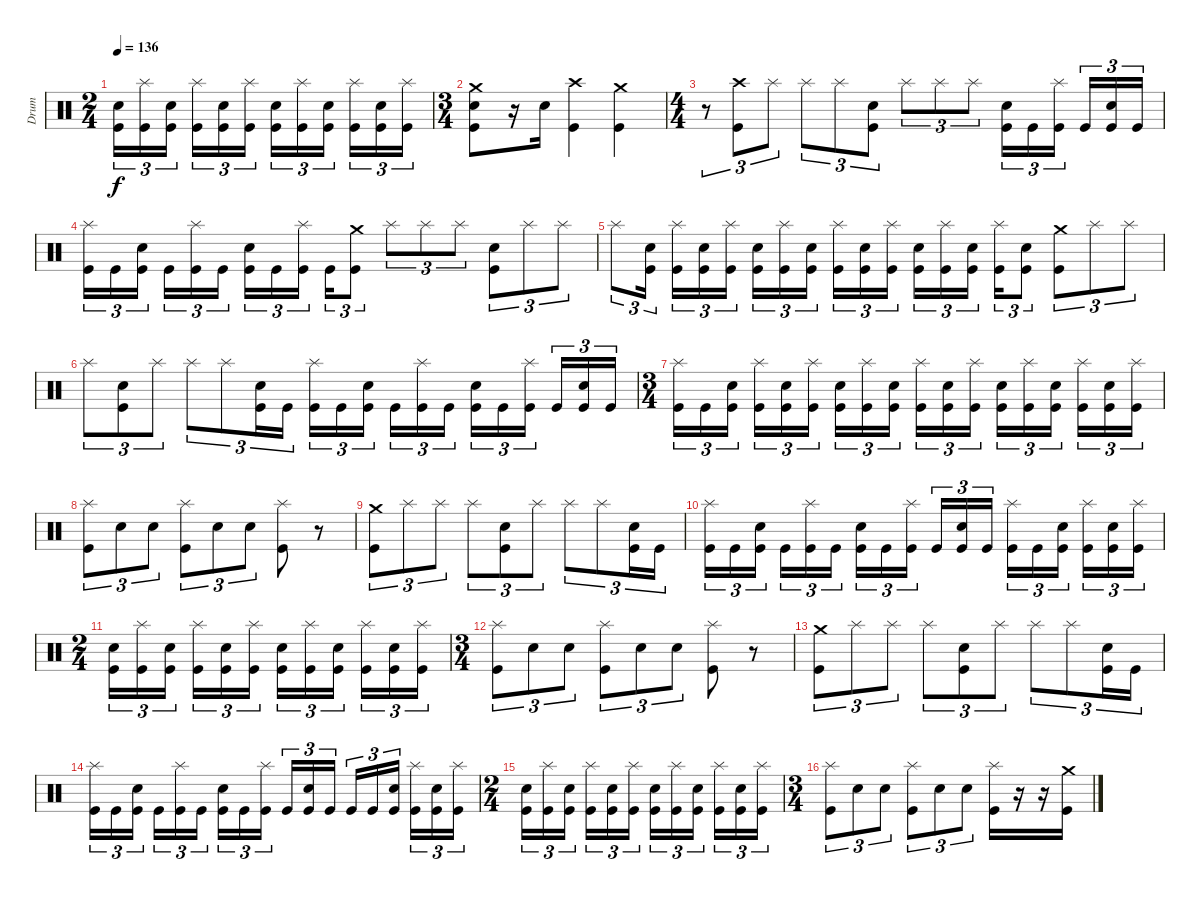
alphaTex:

\track ("Drum" "Drum") {instrument percussion}
\staff
\articulation defaults
\ts (2 4)
\tempo 136
\clef neutral
\ks c
("Electric Snare (hit)" "Kick (hit)").16{tu (3 2) dy f} ("Splash (hit)" "Kick (hit)").16{tu (3 2)} ("Electric Snare (hit)" "Kick (hit)").16{tu (3 2) beam splitsecondary} ("Splash (hit)" "Kick (hit)").16{tu (3 2)} ("Electric Snare (hit)" "Kick (hit)").16{tu (3 2)} ("Splash (hit)" "Kick (hit)").16{tu (3 2)} ("Electric Snare (hit)" "Kick (hit)").16{tu (3 2)} ("Splash (hit)" "Kick (hit)").16{tu (3 2)} ("Electric Snare (hit)" "Kick (hit)").16{tu (3 2) beam splitsecondary} ("Splash (hit)" "Kick (hit)").16{tu (3 2)} ("Electric Snare (hit)" "Kick (hit)").16{tu (3 2)} ("Splash (hit)" "Kick (hit)").16{tu (3 2)} |
\ts (3 4)
("Crash medium (hit)" "Electric Snare (hit)" "Kick (hit)").8 r.16 "Electric Snare (hit)".16 ("Crash high (hit)" "Kick (hit)").4 ("Crash medium (hit)" "Kick (hit)").4 |
\ts (4 4)
r.8{tu (3 2)} ("Crash high (hit)" "Kick (hit)").8{tu (3 2)} "Splash (hit)".8{tu (3 2)} "Splash (hit)".8{tu (3 2)} "Splash (hit)".8{tu (3 2)} ("Electric Snare (hit)" "Kick (hit)").8{tu (3 2)} "Splash (hit)".8{tu (3 2)} "Splash (hit)".8{tu (3 2)} "Splash (hit)".8{tu (3 2)} ("Electric Snare (hit)" "Kick (hit)").16{tu (3 2)} "Kick (hit)".16{tu (3 2)} ("Splash (hit)" "Kick (hit)").16{tu (3 2) beam splitsecondary} "Kick (hit)".16{tu (3 2)} ("Electric Snare (hit)" "Kick (hit)").16{tu (3 2)} "Kick (hit)".16{tu (3 2)} |
("Splash (hit)" "Kick (hit)").16{tu (3 2)} "Kick (hit)".16{tu (3 2)} ("Electric Snare (hit)" "Kick (hit)").16{tu (3 2) beam splitsecondary} "Kick (hit)".16{tu (3 2)} ("Splash (hit)" "Kick (hit)").16{tu (3 2)} "Kick (hit)".16{tu (3 2)} ("Electric Snare (hit)" "Kick (hit)").16{tu (3 2)} "Kick (hit)".16{tu (3 2)} ("Splash (hit)" "Kick (hit)").16{tu (3 2) beam splitsecondary} "Kick (hit)".16{tu (3 2)} ("Crash medium (hit)" "Kick (hit)").8{tu (3 2)} "Splash (hit)".8{tu (3 2)} "Splash (hit)".8{tu (3 2)} "Splash (hit)".8{tu (3 2)} ("Electric Snare (hit)" "Kick (hit)").8{tu (3 2)} "Splash (hit)".8{tu (3 2)} "Splash (hit)".8{tu (3 2)} |
"Splash (hit)".8{tu (3 2)} ("Electric Snare (hit)" "Kick (hit)").16{tu (3 2) beam splitsecondary} ("Splash (hit)" "Kick (hit)").16{tu (3 2)} ("Electric Snare (hit)" "Kick (hit)").16{tu (3 2)} ("Splash (hit)" "Kick (hit)").16{tu (3 2)} ("Electric Snare (hit)" "Kick (hit)").16{tu (3 2)} ("Splash (hit)" "Kick (hit)").16{tu (3 2)} ("Electric Snare (hit)" "Kick (hit)").16{tu (3 2) beam splitsecondary} ("Splash (hit)" "Kick (hit)").16{tu (3 2)} ("Electric Snare (hit)" "Kick (hit)").16{tu (3 2)} ("Splash (hit)" "Kick (hit)").16{tu (3 2)} ("Electric Snare (hit)" "Kick (hit)").16{tu (3 2)} ("Splash (hit)" "Kick (hit)").16{tu (3 2)} ("Electric Snare (hit)" "Kick (hit)").16{tu (3 2) beam splitsecondary} ("Splash (hit)" "Kick (hit)").16{tu (3 2)} ("Electric Snare (hit)" "Kick (hit)").8{tu (3 2)} ("Crash medium (hit)" "Kick (hit)").8{tu (3 2)} "Splash (hit)".8{tu (3 2)} "Splash (hit)".8{tu (3 2)} |
"Splash (hit)".8{tu (3 2)} ("Electric Snare (hit)" "Kick (hit)").8{tu (3 2)} "Splash (hit)".8{tu (3 2)} "Splash (hit)".8{tu (3 2)} "Splash (hit)".8{tu (3 2)} ("Electric Snare (hit)" "Kick (hit)").16{tu (3 2)} "Kick (hit)".16{tu (3 2)} ("Splash (hit)" "Kick (hit)").16{tu (3 2)} "Kick (hit)".16{tu (3 2)} ("Electric Snare (hit)" "Kick (hit)").16{tu (3 2) beam splitsecondary} "Kick (hit)".16{tu (3 2)} ("Splash (hit)" "Kick (hit)").16{tu (3 2)} "Kick (hit)".16{tu (3 2)} ("Electric Snare (hit)" "Kick (hit)").16{tu (3 2)} "Kick (hit)".16{tu (3 2)} ("Splash (hit)" "Kick (hit)").16{tu (3 2) beam splitsecondary} "Kick (hit)".16{tu (3 2)} ("Electric Snare (hit)" "Kick (hit)").16{tu (3 2)} "Kick (hit)".16{tu (3 2)} |
\ts (3 4)
("Splash (hit)" "Kick (hit)").16{tu (3 2)} "Kick (hit)".16{tu (3 2)} ("Electric Snare (hit)" "Kick (hit)").16{tu (3 2) beam splitsecondary} ("Splash (hit)" "Kick (hit)").16{tu (3 2)} ("Electric Snare (hit)" "Kick (hit)").16{tu (3 2)} ("Splash (hit)" "Kick (hit)").16{tu (3 2)} ("Electric Snare (hit)" "Kick (hit)").16{tu (3 2)} ("Splash (hit)" "Kick (hit)").16{tu (3 2)} ("Electric Snare (hit)" "Kick (hit)").16{tu (3 2) beam splitsecondary} ("Splash (hit)" "Kick (hit)").16{tu (3 2)} ("Electric Snare (hit)" "Kick (hit)").16{tu (3 2)} ("Splash (hit)" "Kick (hit)").16{tu (3 2)} ("Electric Snare (hit)" "Kick (hit)").16{tu (3 2)} ("Splash (hit)" "Kick (hit)").16{tu (3 2)} ("Electric Snare (hit)" "Kick (hit)").16{tu (3 2) beam splitsecondary} ("Splash (hit)" "Kick (hit)").16{tu (3 2)} ("Electric Snare (hit)" "Kick (hit)").16{tu (3 2)} ("Splash (hit)" "Kick (hit)").16{tu (3 2)} |
("Splash (hit)" "Kick (hit)").8{tu (3 2)} "Electric Snare (hit)".8{tu (3 2)} "Electric Snare (hit)".8{tu (3 2)} ("Splash (hit)" "Kick (hit)").8{tu (3 2)} "Electric Snare (hit)".8{tu (3 2)} "Electric Snare (hit)".8{tu (3 2)} ("Splash (hit)" "Kick (hit)").8 r.8 |
("Crash medium (hit)" "Kick (hit)").8{tu (3 2)} "Splash (hit)".8{tu (3 2)} "Splash (hit)".8{tu (3 2)} "Splash (hit)".8{tu (3 2)} ("Electric Snare (hit)" "Kick (hit)").8{tu (3 2)} "Splash (hit)".8{tu (3 2)} "Splash (hit)".8{tu (3 2)} "Splash (hit)".8{tu (3 2)} ("Electric Snare (hit)" "Kick (hit)").16{tu (3 2)} "Kick (hit)".16{tu (3 2)} |
("Splash (hit)" "Kick (hit)").16{tu (3 2)} "Kick (hit)".16{tu (3 2)} ("Electric Snare (hit)" "Kick (hit)").16{tu (3 2) beam splitsecondary} "Kick (hit)".16{tu (3 2)} ("Splash (hit)" "Kick (hit)").16{tu (3 2)} "Kick (hit)".16{tu (3 2)} ("Electric Snare (hit)" "Kick (hit)").16{tu (3 2)} "Kick (hit)".16{tu (3 2)} ("Splash (hit)" "Kick (hit)").16{tu (3 2) beam splitsecondary} "Kick (hit)".16{tu (3 2)} ("Electric Snare (hit)" "Kick (hit)").16{tu (3 2)} "Kick (hit)".16{tu (3 2)} ("Splash (hit)" "Kick (hit)").16{tu (3 2)} "Kick (hit)".16{tu (3 2)} ("Electric Snare (hit)" "Kick (hit)").16{tu (3 2) beam splitsecondary} ("Splash (hit)" "Kick (hit)").16{tu (3 2)} ("Electric Snare (hit)" "Kick (hit)").16{tu (3 2)} ("Splash (hit)" "Kick (hit)").16{tu (3 2)} |
\ts (2 4)
("Electric Snare (hit)" "Kick (hit)").16{tu (3 2)} ("Splash (hit)" "Kick (hit)").16{tu (3 2)} ("Electric Snare (hit)" "Kick (hit)").16{tu (3 2) beam splitsecondary} ("Splash (hit)" "Kick (hit)").16{tu (3 2)} ("Electric Snare (hit)" "Kick (hit)").16{tu (3 2)} ("Splash (hit)" "Kick (hit)").16{tu (3 2)} ("Electric Snare (hit)" "Kick (hit)").16{tu (3 2)} ("Splash (hit)" "Kick (hit)").16{tu (3 2)} ("Electric Snare (hit)" "Kick (hit)").16{tu (3 2) beam splitsecondary} ("Splash (hit)" "Kick (hit)").16{tu (3 2)} ("Electric Snare (hit)" "Kick (hit)").16{tu (3 2)} ("Splash (hit)" "Kick (hit)").16{tu (3 2)} |
\ts (3 4)
("Splash (hit)" "Kick (hit)").8{tu (3 2)} "Electric Snare (hit)".8{tu (3 2)} "Electric Snare (hit)".8{tu (3 2)} ("Splash (hit)" "Kick (hit)").8{tu (3 2)} "Electric Snare (hit)".8{tu (3 2)} "Electric Snare (hit)".8{tu (3 2)} ("Splash (hit)" "Kick (hit)").8 r.8 |
("Crash medium (hit)" "Kick (hit)").8{tu (3 2)} "Splash (hit)".8{tu (3 2)} "Splash (hit)".8{tu (3 2)} "Splash (hit)".8{tu (3 2)} ("Electric Snare (hit)" "Kick (hit)").8{tu (3 2)} "Splash (hit)".8{tu (3 2)} "Splash (hit)".8{tu (3 2)} "Splash (hit)".8{tu (3 2)} ("Electric Snare (hit)" "Kick (hit)").16{tu (3 2)} "Kick (hit)".16{tu (3 2)} |
("Splash (hit)" "Kick (hit)").16{tu (3 2)} "Kick (hit)".16{tu (3 2)} ("Electric Snare (hit)" "Kick (hit)").16{tu (3 2) beam splitsecondary} "Kick (hit)".16{tu (3 2)} ("Splash (hit)" "Kick (hit)").16{tu (3 2)} "Kick (hit)".16{tu (3 2)} ("Electric Snare (hit)" "Kick (hit)").16{tu (3 2)} "Kick (hit)".16{tu (3 2)} ("Splash (hit)" "Kick (hit)").16{tu (3 2) beam splitsecondary} "Kick (hit)".16{tu (3 2)} ("Electric Snare (hit)" "Kick (hit)").16{tu (3 2)} "Kick (hit)".16{tu (3 2)} "Kick (hit)".16{tu (3 2)} "Kick (hit)".16{tu (3 2)} ("Electric Snare (hit)" "Kick (hit)").16{tu (3 2) beam splitsecondary} ("Splash (hit)" "Kick (hit)").16{tu (3 2)} ("Electric Snare (hit)" "Kick (hit)").16{tu (3 2)} ("Splash (hit)" "Kick (hit)").16{tu (3 2)} |
\ts (2 4)
("Electric Snare (hit)" "Kick (hit)").16{tu (3 2)} ("Splash (hit)" "Kick (hit)").16{tu (3 2)} ("Electric Snare (hit)" "Kick (hit)").16{tu (3 2) beam splitsecondary} ("Splash (hit)" "Kick (hit)").16{tu (3 2)} ("Electric Snare (hit)" "Kick (hit)").16{tu (3 2)} ("Splash (hit)" "Kick (hit)").16{tu (3 2)} ("Electric Snare (hit)" "Kick (hit)").16{tu (3 2)} ("Splash (hit)" "Kick (hit)").16{tu (3 2)} ("Electric Snare (hit)" "Kick (hit)").16{tu (3 2) beam splitsecondary} ("Splash (hit)" "Kick (hit)").16{tu (3 2)} ("Electric Snare (hit)" "Kick (hit)").16{tu (3 2)} ("Splash (hit)" "Kick (hit)").16{tu (3 2)} |
\ts (3 4)
("Splash (hit)" "Kick (hit)").8{tu (3 2)} "Electric Snare (hit)".8{tu (3 2)} "Electric Snare (hit)".8{tu (3 2)} ("Splash (hit)" "Kick (hit)").8{tu (3 2)} "Electric Snare (hit)".8{tu (3 2)} "Electric Snare (hit)".8{tu (3 2)} ("Splash (hit)" "Kick (hit)").16 r.16 r.16 ("Crash medium (hit)" "Kick (hit)").16
